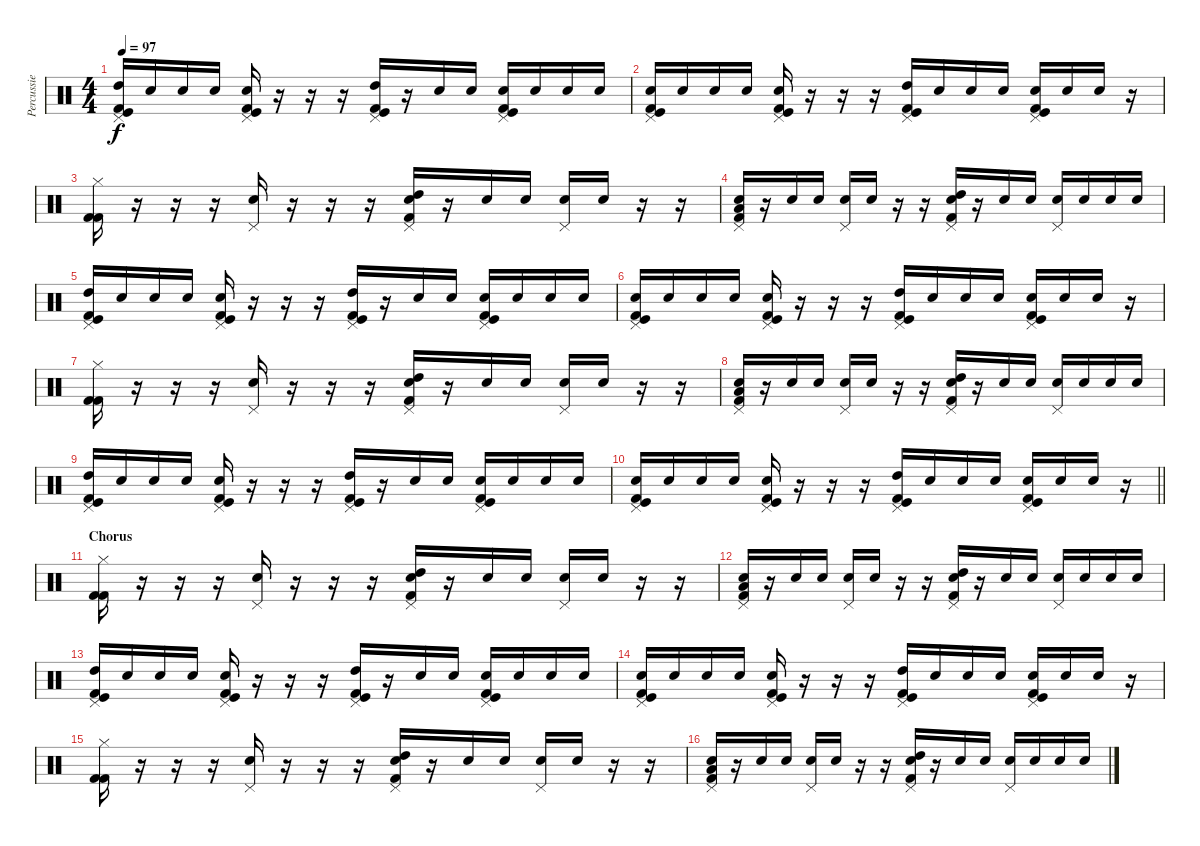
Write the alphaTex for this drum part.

\track ("Percussie" "Percussie") {instrument percussion}
\staff {score}
\articulation defaults
\ts (4 4)
\tempo 97
\clef neutral
\ks c
("Pedal Hi-Hat (hit)" "High Tom (hit)" "Kick (hit)" "Kick (hit) 2").16{dy f} "Hand Clap (hit)".16 "Hand Clap (hit)".16 "Hand Clap (hit)".16 ("Pedal Hi-Hat (hit)" "Electric Snare (hit)" "Kick (hit)" "Kick (hit) 2").16 r.16 r.16 r.16 ("Pedal Hi-Hat (hit)" "High Tom (hit)" "Kick (hit)" "Kick (hit) 2").16 r.16 "Hand Clap (hit)".16 "Hand Clap (hit)".16 ("Pedal Hi-Hat (hit)" "Electric Snare (hit)" "Kick (hit)" "Kick (hit) 2").16 "Hand Clap (hit)".16 "Hand Clap (hit)".16 "Hand Clap (hit)".16 |
("Pedal Hi-Hat (hit)" "Electric Snare (hit)" "Kick (hit)" "Kick (hit) 2").16 "Hand Clap (hit)".16 "Hand Clap (hit)".16 "Hand Clap (hit)".16 ("Pedal Hi-Hat (hit)" "Electric Snare (hit)" "Kick (hit)" "Kick (hit) 2").16 r.16 r.16 r.16 ("Pedal Hi-Hat (hit)" "High Tom (hit)" "Kick (hit)" "Kick (hit) 2").16 "Hand Clap (hit)".16 "Hand Clap (hit)".16 "Hand Clap (hit)".16 ("Pedal Hi-Hat (hit)" "Electric Snare (hit)" "Kick (hit)" "Kick (hit) 2").16 "Hand Clap (hit)".16 "Electric Snare (hit)".16 r.16 |
("Hi-Hat (closed)" "Kick (hit) 2" "Kick (hit) 2").16 r.16 r.16 r.16 ("Pedal Hi-Hat (hit)" "Hand Clap (hit)").16 r.16 r.16 r.16 ("Pedal Hi-Hat (hit)" "Electric Snare (hit)" "High Tom (hit)" "Kick (hit) 2").16 r.16 "Hand Clap (hit)".16 "Hand Clap (hit)".16 ("Pedal Hi-Hat (hit)" "Hand Clap (hit)").16 "Hand Clap (hit)".16 r.16 r.16 |
("Pedal Hi-Hat (hit)" "Electric Snare (hit)" "Low Tom (hit)" "Kick (hit) 2").16 r.16 "Hand Clap (hit)".16 "Hand Clap (hit)".16 ("Pedal Hi-Hat (hit)" "Hand Clap (hit)").16 "Hand Clap (hit)".16 r.16 r.16 ("Pedal Hi-Hat (hit)" "Electric Snare (hit)" "High Tom (hit)" "Kick (hit) 2").16 r.16 "Hand Clap (hit)".16 "Hand Clap (hit)".16 ("Pedal Hi-Hat (hit)" "Hand Clap (hit)").16 "Hand Clap (hit)".16 "Hand Clap (hit)".16 "Hand Clap (hit)".16 |
("Pedal Hi-Hat (hit)" "High Tom (hit)" "Kick (hit)" "Kick (hit) 2").16 "Hand Clap (hit)".16 "Hand Clap (hit)".16 "Hand Clap (hit)".16 ("Pedal Hi-Hat (hit)" "Electric Snare (hit)" "Kick (hit)" "Kick (hit) 2").16 r.16 r.16 r.16 ("Pedal Hi-Hat (hit)" "High Tom (hit)" "Kick (hit)" "Kick (hit) 2").16 r.16 "Hand Clap (hit)".16 "Hand Clap (hit)".16 ("Pedal Hi-Hat (hit)" "Electric Snare (hit)" "Kick (hit)" "Kick (hit) 2").16 "Hand Clap (hit)".16 "Hand Clap (hit)".16 "Hand Clap (hit)".16 |
("Pedal Hi-Hat (hit)" "Electric Snare (hit)" "Kick (hit)" "Kick (hit) 2").16 "Hand Clap (hit)".16 "Hand Clap (hit)".16 "Hand Clap (hit)".16 ("Pedal Hi-Hat (hit)" "Electric Snare (hit)" "Kick (hit)" "Kick (hit) 2").16 r.16 r.16 r.16 ("Pedal Hi-Hat (hit)" "High Tom (hit)" "Kick (hit)" "Kick (hit) 2").16 "Hand Clap (hit)".16 "Hand Clap (hit)".16 "Hand Clap (hit)".16 ("Pedal Hi-Hat (hit)" "Electric Snare (hit)" "Kick (hit)" "Kick (hit) 2").16 "Hand Clap (hit)".16 "Electric Snare (hit)".16 r.16 |
("Hi-Hat (closed)" "Kick (hit) 2" "Kick (hit) 2").16 r.16 r.16 r.16 ("Pedal Hi-Hat (hit)" "Hand Clap (hit)").16 r.16 r.16 r.16 ("Pedal Hi-Hat (hit)" "Electric Snare (hit)" "High Tom (hit)" "Kick (hit) 2").16 r.16 "Hand Clap (hit)".16 "Hand Clap (hit)".16 ("Pedal Hi-Hat (hit)" "Hand Clap (hit)").16 "Hand Clap (hit)".16 r.16 r.16 |
("Pedal Hi-Hat (hit)" "Electric Snare (hit)" "Low Tom (hit)" "Kick (hit) 2").16 r.16 "Hand Clap (hit)".16 "Hand Clap (hit)".16 ("Pedal Hi-Hat (hit)" "Hand Clap (hit)").16 "Hand Clap (hit)".16 r.16 r.16 ("Pedal Hi-Hat (hit)" "Electric Snare (hit)" "High Tom (hit)" "Kick (hit) 2").16 r.16 "Hand Clap (hit)".16 "Hand Clap (hit)".16 ("Pedal Hi-Hat (hit)" "Hand Clap (hit)").16 "Hand Clap (hit)".16 "Hand Clap (hit)".16 "Hand Clap (hit)".16 |
("Pedal Hi-Hat (hit)" "High Tom (hit)" "Kick (hit)" "Kick (hit) 2").16 "Hand Clap (hit)".16 "Hand Clap (hit)".16 "Hand Clap (hit)".16 ("Pedal Hi-Hat (hit)" "Electric Snare (hit)" "Kick (hit)" "Kick (hit) 2").16 r.16 r.16 r.16 ("Pedal Hi-Hat (hit)" "High Tom (hit)" "Kick (hit)" "Kick (hit) 2").16 r.16 "Hand Clap (hit)".16 "Hand Clap (hit)".16 ("Pedal Hi-Hat (hit)" "Electric Snare (hit)" "Kick (hit)" "Kick (hit) 2").16 "Hand Clap (hit)".16 "Hand Clap (hit)".16 "Hand Clap (hit)".16 |
\barLineRight lightlight
("Pedal Hi-Hat (hit)" "Electric Snare (hit)" "Kick (hit)" "Kick (hit) 2").16 "Hand Clap (hit)".16 "Hand Clap (hit)".16 "Hand Clap (hit)".16 ("Pedal Hi-Hat (hit)" "Electric Snare (hit)" "Kick (hit)" "Kick (hit) 2").16 r.16 r.16 r.16 ("Pedal Hi-Hat (hit)" "High Tom (hit)" "Kick (hit)" "Kick (hit) 2").16 "Hand Clap (hit)".16 "Hand Clap (hit)".16 "Hand Clap (hit)".16 ("Pedal Hi-Hat (hit)" "Electric Snare (hit)" "Kick (hit)" "Kick (hit) 2").16 "Hand Clap (hit)".16 "Electric Snare (hit)".16 r.16 |
\section ("" "Chorus")
("Hi-Hat (closed)" "Kick (hit) 2" "Kick (hit) 2").16 r.16 r.16 r.16 ("Pedal Hi-Hat (hit)" "Hand Clap (hit)").16 r.16 r.16 r.16 ("Pedal Hi-Hat (hit)" "Electric Snare (hit)" "High Tom (hit)" "Kick (hit) 2").16 r.16 "Hand Clap (hit)".16 "Hand Clap (hit)".16 ("Pedal Hi-Hat (hit)" "Hand Clap (hit)").16 "Hand Clap (hit)".16 r.16 r.16 |
("Pedal Hi-Hat (hit)" "Electric Snare (hit)" "Low Tom (hit)" "Kick (hit) 2").16 r.16 "Hand Clap (hit)".16 "Hand Clap (hit)".16 ("Pedal Hi-Hat (hit)" "Hand Clap (hit)").16 "Hand Clap (hit)".16 r.16 r.16 ("Pedal Hi-Hat (hit)" "Electric Snare (hit)" "High Tom (hit)" "Kick (hit) 2").16 r.16 "Hand Clap (hit)".16 "Hand Clap (hit)".16 ("Pedal Hi-Hat (hit)" "Hand Clap (hit)").16 "Hand Clap (hit)".16 "Hand Clap (hit)".16 "Hand Clap (hit)".16 |
("Pedal Hi-Hat (hit)" "High Tom (hit)" "Kick (hit)" "Kick (hit) 2").16 "Hand Clap (hit)".16 "Hand Clap (hit)".16 "Hand Clap (hit)".16 ("Pedal Hi-Hat (hit)" "Electric Snare (hit)" "Kick (hit)" "Kick (hit) 2").16 r.16 r.16 r.16 ("Pedal Hi-Hat (hit)" "High Tom (hit)" "Kick (hit)" "Kick (hit) 2").16 r.16 "Hand Clap (hit)".16 "Hand Clap (hit)".16 ("Pedal Hi-Hat (hit)" "Electric Snare (hit)" "Kick (hit)" "Kick (hit) 2").16 "Hand Clap (hit)".16 "Hand Clap (hit)".16 "Hand Clap (hit)".16 |
("Pedal Hi-Hat (hit)" "Electric Snare (hit)" "Kick (hit)" "Kick (hit) 2").16 "Hand Clap (hit)".16 "Hand Clap (hit)".16 "Hand Clap (hit)".16 ("Pedal Hi-Hat (hit)" "Electric Snare (hit)" "Kick (hit)" "Kick (hit) 2").16 r.16 r.16 r.16 ("Pedal Hi-Hat (hit)" "High Tom (hit)" "Kick (hit)" "Kick (hit) 2").16 "Hand Clap (hit)".16 "Hand Clap (hit)".16 "Hand Clap (hit)".16 ("Pedal Hi-Hat (hit)" "Electric Snare (hit)" "Kick (hit)" "Kick (hit) 2").16 "Hand Clap (hit)".16 "Electric Snare (hit)".16 r.16 |
("Hi-Hat (closed)" "Kick (hit) 2" "Kick (hit) 2").16 r.16 r.16 r.16 ("Pedal Hi-Hat (hit)" "Hand Clap (hit)").16 r.16 r.16 r.16 ("Pedal Hi-Hat (hit)" "Electric Snare (hit)" "High Tom (hit)" "Kick (hit) 2").16 r.16 "Hand Clap (hit)".16 "Hand Clap (hit)".16 ("Pedal Hi-Hat (hit)" "Hand Clap (hit)").16 "Hand Clap (hit)".16 r.16 r.16 |
("Pedal Hi-Hat (hit)" "Electric Snare (hit)" "Low Tom (hit)" "Kick (hit) 2").16 r.16 "Hand Clap (hit)".16 "Hand Clap (hit)".16 ("Pedal Hi-Hat (hit)" "Hand Clap (hit)").16 "Hand Clap (hit)".16 r.16 r.16 ("Pedal Hi-Hat (hit)" "Electric Snare (hit)" "High Tom (hit)" "Kick (hit) 2").16 r.16 "Hand Clap (hit)".16 "Hand Clap (hit)".16 ("Pedal Hi-Hat (hit)" "Hand Clap (hit)").16 "Hand Clap (hit)".16 "Hand Clap (hit)".16 "Hand Clap (hit)".16
